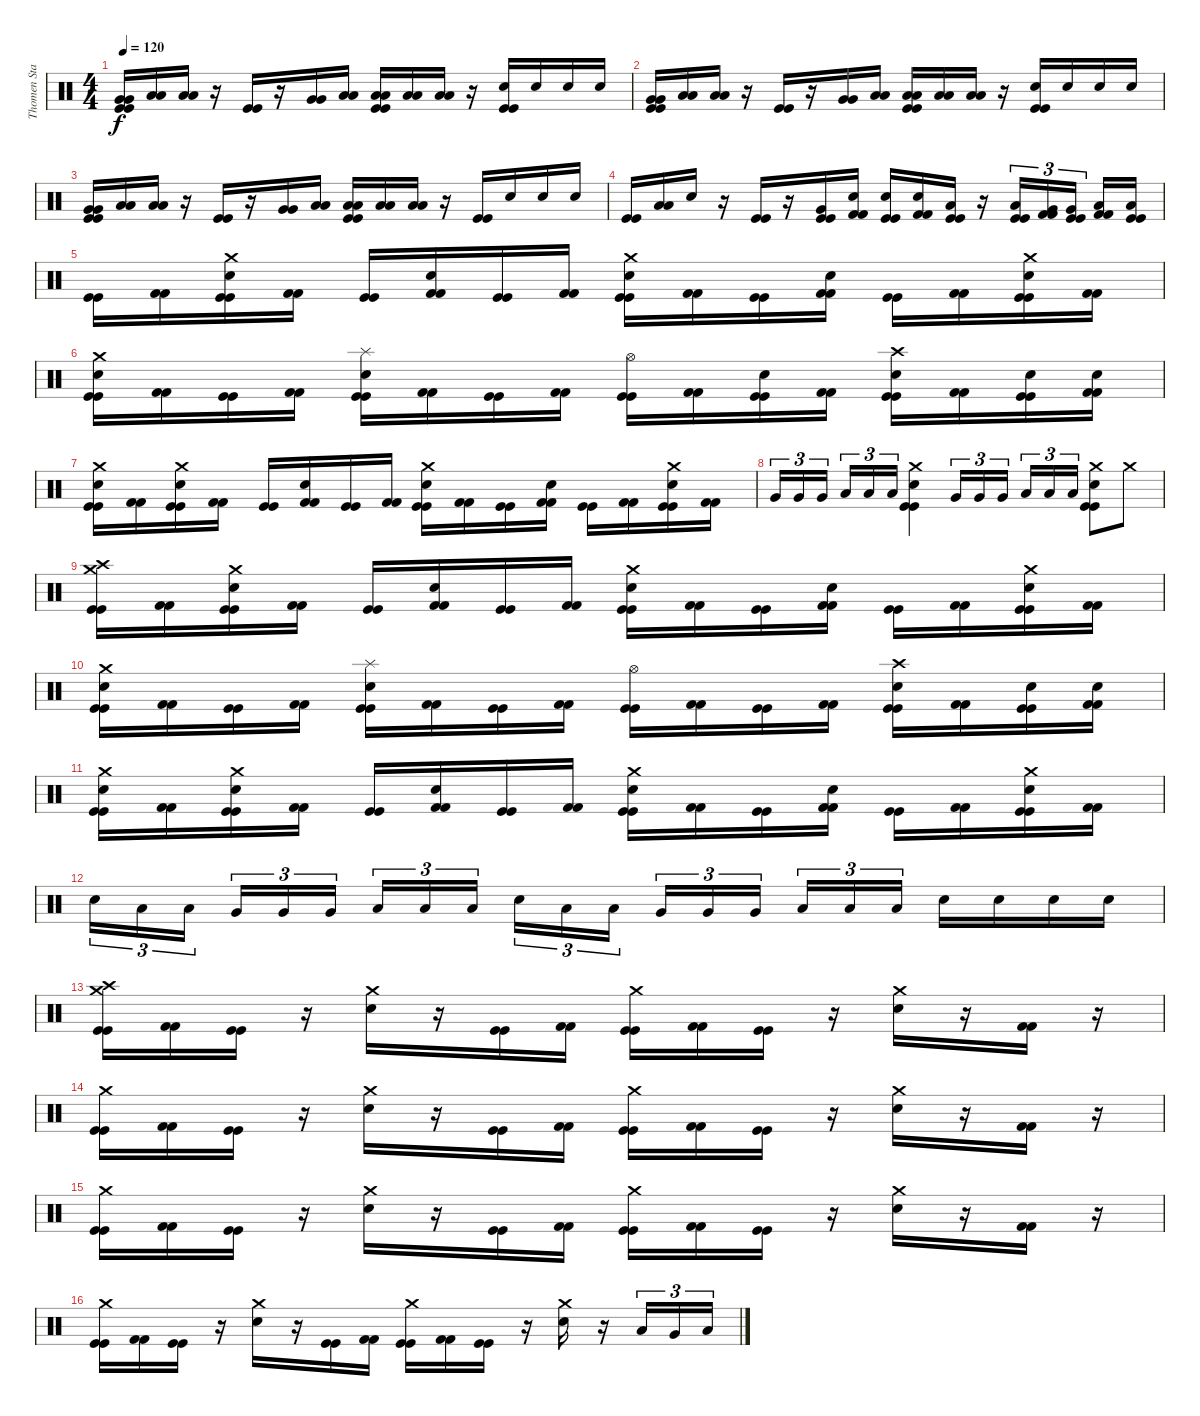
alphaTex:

\track ("Thomen Stauch" "Thomen Sta") {instrument percussion}
\staff {score}
\articulation defaults
\ts (4 4)
\tempo 120
\clef neutral
\ks c
("Very Low Tom (hit)" "Very Low Tom (hit)" "Kick (hit)" "Kick (hit)").16{dy f} ("Low Floor Tom (hit)" "Low Floor Tom (hit)").16 ("Low Floor Tom (hit)" "Low Floor Tom (hit)").16 r.16 ("Kick (hit)" "Kick (hit)").16 r.16 ("Very Low Tom (hit)" "Very Low Tom (hit)").16 ("Low Floor Tom (hit)" "Low Floor Tom (hit)").16 ("Low Floor Tom (hit)" "Low Floor Tom (hit)" "Kick (hit)" "Kick (hit)").16 ("Low Floor Tom (hit)" "Low Floor Tom (hit)").16 ("Low Floor Tom (hit)" "Low Floor Tom (hit)").16 r.16 ("Snare (hit) 2" "Kick (hit)" "Kick (hit)").16 "Snare (hit) 2".16 "Snare (hit) 2".16 "Snare (hit) 2".16 |
("Very Low Tom (hit)" "Very Low Tom (hit)" "Kick (hit)" "Kick (hit)").16 ("Low Floor Tom (hit)" "Low Floor Tom (hit)").16 ("Low Floor Tom (hit)" "Low Floor Tom (hit)").16 r.16 ("Kick (hit)" "Kick (hit)").16 r.16 ("Very Low Tom (hit)" "Very Low Tom (hit)").16 ("Low Floor Tom (hit)" "Low Floor Tom (hit)").16 ("Low Floor Tom (hit)" "Low Floor Tom (hit)" "Kick (hit)" "Kick (hit)").16 ("Low Floor Tom (hit)" "Low Floor Tom (hit)").16 ("Low Floor Tom (hit)" "Low Floor Tom (hit)").16 r.16 ("Snare (hit) 2" "Kick (hit)" "Kick (hit)").16 "Snare (hit) 2".16 "Snare (hit) 2".16 "Snare (hit) 2".16 |
("Very Low Tom (hit)" "Very Low Tom (hit)" "Kick (hit)" "Kick (hit)").16 ("Low Floor Tom (hit)" "Low Floor Tom (hit)").16 ("Low Floor Tom (hit)" "Low Floor Tom (hit)").16 r.16 ("Kick (hit)" "Kick (hit)").16 r.16 ("Very Low Tom (hit)" "Very Low Tom (hit)").16 ("Low Floor Tom (hit)" "Low Floor Tom (hit)").16 ("Low Floor Tom (hit)" "Low Floor Tom (hit)" "Kick (hit)" "Kick (hit)").16 ("Low Floor Tom (hit)" "Low Floor Tom (hit)").16 ("Low Floor Tom (hit)" "Low Floor Tom (hit)").16 r.16 ("Kick (hit)" "Kick (hit)").16 "Snare (hit) 2".16 "Snare (hit) 2".16 "Snare (hit) 2".16 |
("Kick (hit)" "Kick (hit)").16 ("Low Floor Tom (hit)" "Low Floor Tom (hit)").16 "Snare (hit) 2".16 r.16 ("Kick (hit)" "Kick (hit)").16 r.16 ("Very Low Tom (hit)" "Kick (hit)" "Kick (hit)").16 ("Snare (hit) 2" "Kick (hit) 2" "Kick (hit) 2").16 ("Snare (hit) 2" "Kick (hit)" "Kick (hit)").16 ("Snare (hit) 2" "Kick (hit) 2" "Kick (hit) 2").16 ("Low Floor Tom (hit)" "Kick (hit)" "Kick (hit)").16 r.16 ("Low Tom (hit)" "Kick (hit)" "Kick (hit)").16{tu (3 2)} ("Very Low Tom (hit)" "Kick (hit) 2" "Kick (hit) 2").16{tu (3 2)} ("Very Low Tom (hit)" "Kick (hit)" "Kick (hit)").16{tu (3 2)} ("Low Floor Tom (hit)" "Kick (hit) 2" "Kick (hit) 2").16 ("Low Floor Tom (hit)" "Kick (hit)" "Kick (hit)").16 |
("Kick (hit)" "Kick (hit)").16 ("Kick (hit) 2" "Kick (hit) 2").16 ("Crash medium (hit)" "Snare (hit) 2" "Kick (hit)" "Kick (hit)").16 ("Kick (hit) 2" "Kick (hit) 2").16 ("Kick (hit)" "Kick (hit)").16 ("Snare (hit) 2" "Kick (hit) 2" "Kick (hit) 2").16 ("Kick (hit)" "Kick (hit)").16 ("Kick (hit) 2" "Kick (hit) 2").16 ("Crash medium (hit)" "Snare (hit) 2" "Kick (hit)" "Kick (hit)").16 ("Kick (hit) 2" "Kick (hit) 2").16 ("Kick (hit)" "Kick (hit)").16 ("Snare (hit) 2" "Kick (hit) 2" "Kick (hit) 2").16 ("Kick (hit)" "Kick (hit)").16 ("Kick (hit) 2" "Kick (hit) 2").16 ("Crash medium (hit)" "Snare (hit) 2" "Kick (hit)" "Kick (hit)").16 ("Kick (hit) 2" "Kick (hit) 2").16 |
("Crash medium (hit)" "Snare (hit) 2" "Kick (hit)" "Kick (hit)").16 ("Kick (hit) 2" "Kick (hit) 2").16 ("Kick (hit)" "Kick (hit)").16 ("Kick (hit) 2" "Kick (hit) 2").16 ("Splash (hit)" "Snare (hit) 2" "Kick (hit)" "Kick (hit)").16 ("Kick (hit) 2" "Kick (hit) 2").16 ("Kick (hit)" "Kick (hit)").16 ("Kick (hit) 2" "Kick (hit) 2").16 ("Hi-Hat (open)" "Kick (hit)" "Kick (hit)").16 ("Kick (hit) 2" "Kick (hit) 2").16 ("Snare (hit) 2" "Kick (hit)" "Kick (hit)").16 ("Kick (hit) 2" "Kick (hit) 2").16 ("Crash high (hit)" "Snare (hit) 2" "Kick (hit)" "Kick (hit)").16 ("Kick (hit) 2" "Kick (hit) 2").16 ("Snare (hit) 2" "Kick (hit)" "Kick (hit)").16 ("Snare (hit) 2" "Kick (hit) 2" "Kick (hit) 2").16 |
("Crash medium (hit)" "Snare (hit) 2" "Kick (hit)" "Kick (hit)").16 ("Kick (hit) 2" "Kick (hit) 2").16 ("Crash medium (hit)" "Snare (hit) 2" "Kick (hit)" "Kick (hit)").16 ("Kick (hit) 2" "Kick (hit) 2").16 ("Kick (hit)" "Kick (hit)").16 ("Snare (hit) 2" "Kick (hit) 2" "Kick (hit) 2").16 ("Kick (hit)" "Kick (hit)").16 ("Kick (hit) 2" "Kick (hit) 2").16 ("Crash medium (hit)" "Snare (hit) 2" "Kick (hit)" "Kick (hit)").16 ("Kick (hit) 2" "Kick (hit) 2").16 ("Kick (hit)" "Kick (hit)").16 ("Snare (hit) 2" "Kick (hit) 2" "Kick (hit) 2").16 ("Kick (hit)" "Kick (hit)").16 ("Kick (hit) 2" "Kick (hit) 2").16 ("Crash medium (hit)" "Snare (hit) 2" "Kick (hit)" "Kick (hit)").16 ("Kick (hit) 2" "Kick (hit) 2").16 |
"Very Low Tom (hit)".16{tu (3 2)} "Very Low Tom (hit)".16{tu (3 2)} "Very Low Tom (hit)".16{tu (3 2)} "Low Floor Tom (hit)".16{tu (3 2)} "Low Floor Tom (hit)".16{tu (3 2)} "Low Floor Tom (hit)".16{tu (3 2)} ("Crash medium (hit)" "Snare (hit) 2" "Kick (hit)" "Kick (hit)").4 "Very Low Tom (hit)".16{tu (3 2)} "Very Low Tom (hit)".16{tu (3 2)} "Very Low Tom (hit)".16{tu (3 2)} "Low Floor Tom (hit)".16{tu (3 2)} "Low Floor Tom (hit)".16{tu (3 2)} "Low Floor Tom (hit)".16{tu (3 2)} ("Crash medium (hit)" "Snare (hit) 2" "Kick (hit)" "Kick (hit)").8 "Crash medium (hit)".8 |
("Crash medium (hit)" "Crash high (hit)" "Kick (hit)" "Kick (hit)").16 ("Kick (hit) 2" "Kick (hit) 2").16 ("Crash medium (hit)" "Snare (hit) 2" "Kick (hit)" "Kick (hit)").16 ("Kick (hit) 2" "Kick (hit) 2").16 ("Kick (hit)" "Kick (hit)").16 ("Snare (hit) 2" "Kick (hit) 2" "Kick (hit) 2").16 ("Kick (hit)" "Kick (hit)").16 ("Kick (hit) 2" "Kick (hit) 2").16 ("Crash medium (hit)" "Snare (hit) 2" "Kick (hit)" "Kick (hit)").16 ("Kick (hit) 2" "Kick (hit) 2").16 ("Kick (hit)" "Kick (hit)").16 ("Snare (hit) 2" "Kick (hit) 2" "Kick (hit) 2").16 ("Kick (hit)" "Kick (hit)").16 ("Kick (hit) 2" "Kick (hit) 2").16 ("Crash medium (hit)" "Snare (hit) 2" "Kick (hit)" "Kick (hit)").16 ("Kick (hit) 2" "Kick (hit) 2").16 |
("Crash medium (hit)" "Snare (hit) 2" "Kick (hit)" "Kick (hit)").16 ("Kick (hit) 2" "Kick (hit) 2").16 ("Kick (hit)" "Kick (hit)").16 ("Kick (hit) 2" "Kick (hit) 2").16 ("Splash (hit)" "Snare (hit) 2" "Kick (hit)" "Kick (hit)").16 ("Kick (hit) 2" "Kick (hit) 2").16 ("Kick (hit)" "Kick (hit)").16 ("Kick (hit) 2" "Kick (hit) 2").16 ("Hi-Hat (open)" "Kick (hit)" "Kick (hit)").16 ("Kick (hit) 2" "Kick (hit) 2").16 ("Kick (hit)" "Kick (hit)").16 ("Kick (hit) 2" "Kick (hit) 2").16 ("Crash high (hit)" "Snare (hit) 2" "Kick (hit)" "Kick (hit)").16 ("Kick (hit) 2" "Kick (hit) 2").16 ("Snare (hit) 2" "Kick (hit)" "Kick (hit)").16 ("Snare (hit) 2" "Kick (hit) 2" "Kick (hit) 2").16 |
("Crash medium (hit)" "Snare (hit) 2" "Kick (hit)" "Kick (hit)").16 ("Kick (hit) 2" "Kick (hit) 2").16 ("Crash medium (hit)" "Snare (hit) 2" "Kick (hit)" "Kick (hit)").16 ("Kick (hit) 2" "Kick (hit) 2").16 ("Kick (hit)" "Kick (hit)").16 ("Snare (hit) 2" "Kick (hit) 2" "Kick (hit) 2").16 ("Kick (hit)" "Kick (hit)").16 ("Kick (hit) 2" "Kick (hit) 2").16 ("Crash medium (hit)" "Snare (hit) 2" "Kick (hit)" "Kick (hit)").16 ("Kick (hit) 2" "Kick (hit) 2").16 ("Kick (hit)" "Kick (hit)").16 ("Snare (hit) 2" "Kick (hit) 2" "Kick (hit) 2").16 ("Kick (hit)" "Kick (hit)").16 ("Kick (hit) 2" "Kick (hit) 2").16 ("Crash medium (hit)" "Snare (hit) 2" "Kick (hit)" "Kick (hit)").16 ("Kick (hit) 2" "Kick (hit) 2").16 |
"Snare (hit) 2".16{tu (3 2)} "Low Tom (hit)".16{tu (3 2)} "Low Tom (hit)".16{tu (3 2)} "Very Low Tom (hit)".16{tu (3 2)} "Very Low Tom (hit)".16{tu (3 2)} "Very Low Tom (hit)".16{tu (3 2)} "Low Floor Tom (hit)".16{tu (3 2)} "Low Floor Tom (hit)".16{tu (3 2)} "Low Floor Tom (hit)".16{tu (3 2)} "Snare (hit) 2".16{tu (3 2)} "Low Tom (hit)".16{tu (3 2)} "Low Tom (hit)".16{tu (3 2)} "Very Low Tom (hit)".16{tu (3 2)} "Very Low Tom (hit)".16{tu (3 2)} "Very Low Tom (hit)".16{tu (3 2)} "Low Floor Tom (hit)".16{tu (3 2)} "Low Floor Tom (hit)".16{tu (3 2)} "Low Floor Tom (hit)".16{tu (3 2)} "Snare (hit) 2".16 "Snare (hit) 2".16 "Snare (hit) 2".16 "Snare (hit) 2".16 |
("Crash medium (hit)" "Crash high (hit)" "Kick (hit)" "Kick (hit)").16 ("Kick (hit) 2" "Kick (hit) 2").16 ("Kick (hit)" "Kick (hit)").16 r.16 ("Crash medium (hit)" "Snare (hit) 2").16 r.16 ("Kick (hit)" "Kick (hit)").16 ("Kick (hit) 2" "Kick (hit) 2").16 ("Crash medium (hit)" "Kick (hit)" "Kick (hit)").16 ("Kick (hit) 2" "Kick (hit) 2").16 ("Kick (hit)" "Kick (hit)").16 r.16 ("Crash medium (hit)" "Snare (hit) 2").16 r.16 ("Kick (hit) 2" "Kick (hit) 2").16 r.16 |
("Crash medium (hit)" "Kick (hit)" "Kick (hit)").16 ("Kick (hit) 2" "Kick (hit) 2").16 ("Kick (hit)" "Kick (hit)").16 r.16 ("Crash medium (hit)" "Snare (hit) 2").16 r.16 ("Kick (hit)" "Kick (hit)").16 ("Kick (hit) 2" "Kick (hit) 2").16 ("Crash medium (hit)" "Kick (hit)" "Kick (hit)").16 ("Kick (hit) 2" "Kick (hit) 2").16 ("Kick (hit)" "Kick (hit)").16 r.16 ("Crash medium (hit)" "Snare (hit) 2").16 r.16 ("Kick (hit) 2" "Kick (hit) 2").16 r.16 |
("Crash medium (hit)" "Kick (hit)" "Kick (hit)").16 ("Kick (hit) 2" "Kick (hit) 2").16 ("Kick (hit)" "Kick (hit)").16 r.16 ("Crash medium (hit)" "Snare (hit) 2").16 r.16 ("Kick (hit)" "Kick (hit)").16 ("Kick (hit) 2" "Kick (hit) 2").16 ("Crash medium (hit)" "Kick (hit)" "Kick (hit)").16 ("Kick (hit) 2" "Kick (hit) 2").16 ("Kick (hit)" "Kick (hit)").16 r.16 ("Crash medium (hit)" "Snare (hit) 2").16 r.16 ("Kick (hit) 2" "Kick (hit) 2").16 r.16 |
("Crash medium (hit)" "Kick (hit)" "Kick (hit)").16 ("Kick (hit) 2" "Kick (hit) 2").16 ("Kick (hit)" "Kick (hit)").16 r.16 ("Crash medium (hit)" "Snare (hit) 2").16 r.16 ("Kick (hit)" "Kick (hit)").16 ("Kick (hit) 2" "Kick (hit) 2").16 ("Crash medium (hit)" "Kick (hit)" "Kick (hit)").16 ("Kick (hit) 2" "Kick (hit) 2").16 ("Kick (hit)" "Kick (hit)").16 r.16 ("Crash medium (hit)" "Snare (hit) 2").16 r.16 "Low Tom (hit)".16{tu (3 2)} "Very Low Tom (hit)".16{tu (3 2)} "Low Floor Tom (hit)".16{tu (3 2)}
